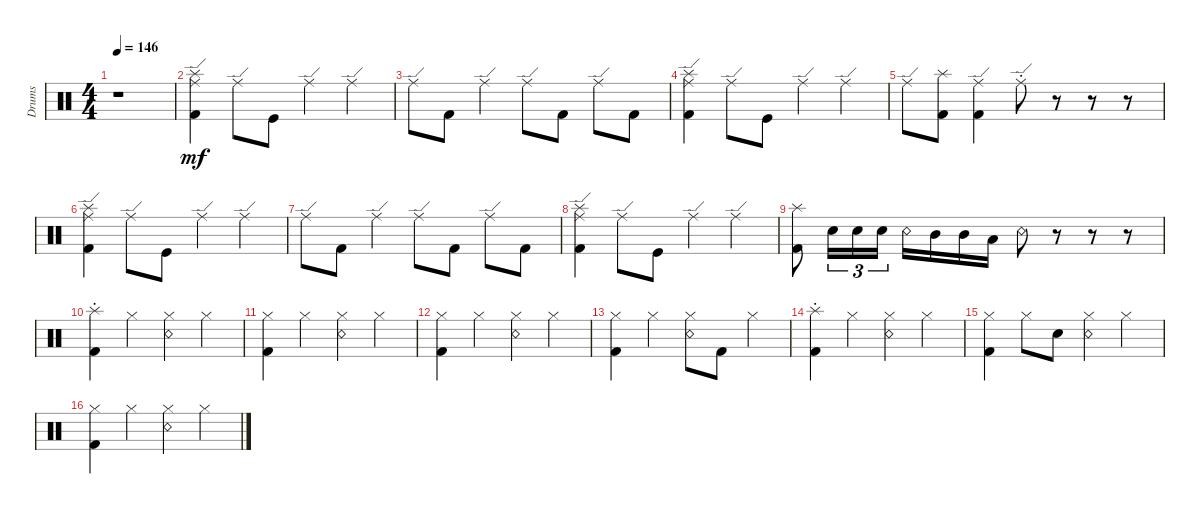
\track ("Drums" "Drums") {instrument percussion}
\staff {score}
\articulation defaults
\ts (4 4)
\tempo 146
\clef neutral
\ks c
r.1{dy mf} |
("Splash (hit)" "Ride (edge)" "Kick (hit) 2").4 "Ride (edge)".8 "Kick (hit)".8 "Ride (edge)".4 "Ride (edge)".4 |
"Ride (edge)".8 "Kick (hit) 2".8 "Ride (edge)".4 "Ride (edge)".8 "Kick (hit) 2".8 "Ride (edge)".8 "Kick (hit) 2".8 |
("Splash (hit)" "Ride (edge)" "Kick (hit) 2").4 "Ride (edge)".8 "Kick (hit)".8 "Ride (edge)".4 "Ride (edge)".4 |
"Ride (edge)".8 ("Splash (hit)" "Kick (hit) 2").8 ("Ride (edge)" "Kick (hit) 2").4 "Ride (edge)"{st}.8 r.8 r.8 r.8 |
("Splash (hit)" "Ride (edge)" "Kick (hit) 2").4 "Ride (edge)".8 "Kick (hit)".8 "Ride (edge)".4 "Ride (edge)".4 |
"Ride (edge)".8 "Kick (hit) 2".8 "Ride (edge)".4 "Ride (edge)".8 "Kick (hit) 2".8 "Ride (edge)".8 "Kick (hit) 2".8 |
("Splash (hit)" "Ride (edge)" "Kick (hit) 2").4 "Ride (edge)".8 "Kick (hit)".8 "Ride (edge)".4 "Ride (edge)".4 |
("Splash (hit)" "Kick (hit) 2").8 "Snare (hit) 2".16{tu (3 2)} "Snare (hit) 2".16{tu (3 2)} "Snare (hit) 2".16{tu (3 2)} "Snare (rim shot)".16 "Mid Tom (hit)".16 "Mid Tom (hit)".16 "Low Tom (hit)".16 "Snare (rim shot)".8 r.8 r.8 r.8 |
("Splash (hit)"{st} "Kick (hit) 2").4 "Hi-Hat (closed)".4 ("Hi-Hat (closed)" "Snare (rim shot)").4 "Hi-Hat (closed)".4 |
("Hi-Hat (closed)" "Kick (hit) 2").4 "Hi-Hat (closed)".4 ("Hi-Hat (closed)" "Snare (rim shot)").4 "Hi-Hat (closed)".4 |
("Hi-Hat (closed)" "Kick (hit) 2").4 "Hi-Hat (closed)".4 ("Hi-Hat (closed)" "Snare (rim shot)").4 "Hi-Hat (closed)".4 |
("Hi-Hat (closed)" "Kick (hit) 2").4 "Hi-Hat (closed)".4 ("Hi-Hat (closed)" "Snare (rim shot)").8 "Kick (hit) 2".8 "Hi-Hat (closed)".4 |
("Splash (hit)"{st} "Kick (hit) 2").4 "Hi-Hat (closed)".4 ("Hi-Hat (closed)" "Snare (rim shot)").4 "Hi-Hat (closed)".4 |
("Hi-Hat (closed)" "Kick (hit) 2").4 "Hi-Hat (closed)".8 "Snare (hit) 2".8 ("Hi-Hat (closed)" "Snare (rim shot)").4 "Hi-Hat (closed)".4 |
("Hi-Hat (closed)" "Kick (hit) 2").4 "Hi-Hat (closed)".4 ("Hi-Hat (closed)" "Snare (rim shot)").4 "Hi-Hat (closed)".4
